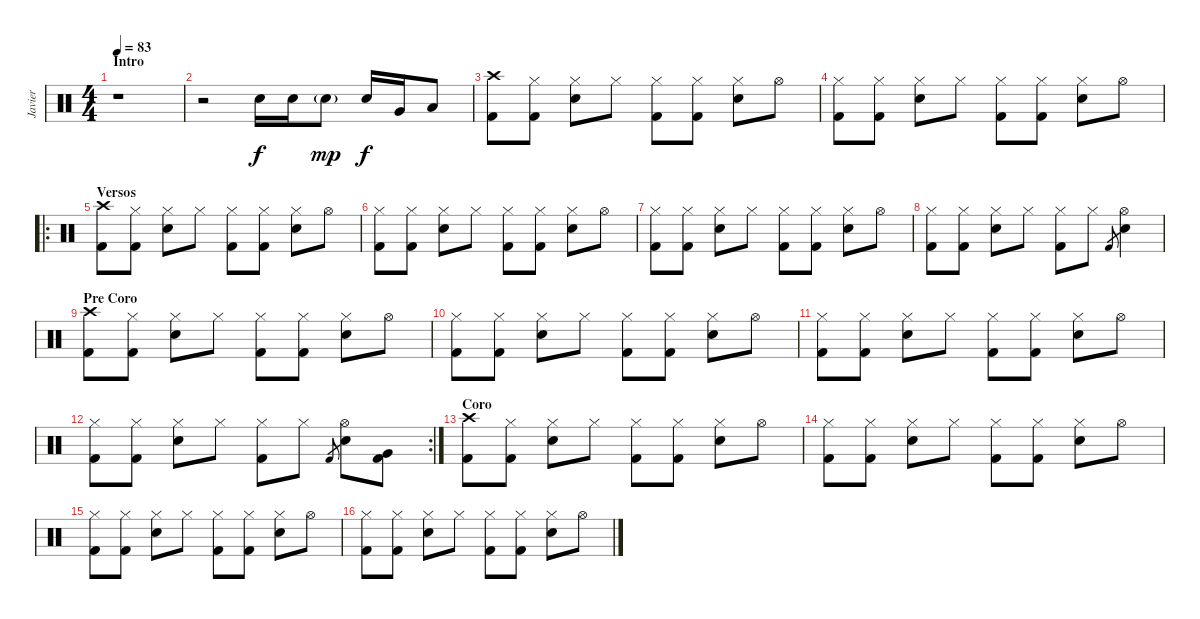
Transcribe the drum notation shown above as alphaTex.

\track ("Javier" "Javier") {instrument percussion}
\staff {score}
\articulation defaults
\ts (4 4)
\section ("" "Intro")
\tempo 83
\clef neutral
\ks c
r.1{dy f} |
r.2 "Snare (hit) 2".16 "Snare (hit) 2".16 "Snare (hit) 2"{g}.8{dy mp} "Snare (hit) 2".16{dy f} "Very Low Tom (hit)".16 "Low Tom (hit)".8 |
("Crash high (hit)" "Kick (hit) 2").8 ("Hi-Hat (closed)" "Kick (hit) 2").8 ("Hi-Hat (closed)" "Snare (hit) 2").8 "Hi-Hat (closed)".8 ("Hi-Hat (closed)" "Kick (hit) 2").8 ("Hi-Hat (closed)" "Kick (hit) 2").8 ("Hi-Hat (closed)" "Snare (hit) 2").8 "Hi-Hat (open)".8 |
("Hi-Hat (closed)" "Kick (hit) 2").8 ("Hi-Hat (closed)" "Kick (hit) 2").8 ("Hi-Hat (closed)" "Snare (hit) 2").8 "Hi-Hat (closed)".8 ("Hi-Hat (closed)" "Kick (hit) 2").8 ("Hi-Hat (closed)" "Kick (hit) 2").8 ("Hi-Hat (closed)" "Snare (hit) 2").8 "Hi-Hat (open)".8 |
\ro
\section ("" "Versos")
("Crash high (hit)" "Kick (hit) 2").8 ("Hi-Hat (closed)" "Kick (hit) 2").8 ("Hi-Hat (closed)" "Snare (hit) 2").8 "Hi-Hat (closed)".8 ("Hi-Hat (closed)" "Kick (hit) 2").8 ("Hi-Hat (closed)" "Kick (hit) 2").8 ("Hi-Hat (closed)" "Snare (hit) 2").8 "Hi-Hat (open)".8 |
("Hi-Hat (closed)" "Kick (hit) 2").8 ("Hi-Hat (closed)" "Kick (hit) 2").8 ("Hi-Hat (closed)" "Snare (hit) 2").8 "Hi-Hat (closed)".8 ("Hi-Hat (closed)" "Kick (hit) 2").8 ("Hi-Hat (closed)" "Kick (hit) 2").8 ("Hi-Hat (closed)" "Snare (hit) 2").8 "Hi-Hat (open)".8 |
("Hi-Hat (closed)" "Kick (hit) 2").8 ("Hi-Hat (closed)" "Kick (hit) 2").8 ("Hi-Hat (closed)" "Snare (hit) 2").8 "Hi-Hat (closed)".8 ("Hi-Hat (closed)" "Kick (hit) 2").8 ("Hi-Hat (closed)" "Kick (hit) 2").8 ("Hi-Hat (closed)" "Snare (hit) 2").8 "Hi-Hat (open)".8 |
("Hi-Hat (closed)" "Kick (hit) 2").8 ("Hi-Hat (closed)" "Kick (hit) 2").8 ("Hi-Hat (closed)" "Snare (hit) 2").8 "Hi-Hat (closed)".8 ("Hi-Hat (closed)" "Kick (hit) 2").8 "Hi-Hat (closed)".8 "Kick (hit) 2".8{gr} ("Hi-Hat (open)" "Snare (hit) 2").4 |
\section ("" "Pre Coro")
("Crash high (hit)" "Kick (hit) 2").8 ("Hi-Hat (closed)" "Kick (hit) 2").8 ("Hi-Hat (closed)" "Snare (hit) 2").8 "Hi-Hat (closed)".8 ("Hi-Hat (closed)" "Kick (hit) 2").8 ("Hi-Hat (closed)" "Kick (hit) 2").8 ("Hi-Hat (closed)" "Snare (hit) 2").8 "Hi-Hat (open)".8 |
("Hi-Hat (closed)" "Kick (hit) 2").8 ("Hi-Hat (closed)" "Kick (hit) 2").8 ("Hi-Hat (closed)" "Snare (hit) 2").8 "Hi-Hat (closed)".8 ("Hi-Hat (closed)" "Kick (hit) 2").8 ("Hi-Hat (closed)" "Kick (hit) 2").8 ("Hi-Hat (closed)" "Snare (hit) 2").8 "Hi-Hat (open)".8 |
("Hi-Hat (closed)" "Kick (hit) 2").8 ("Hi-Hat (closed)" "Kick (hit) 2").8 ("Hi-Hat (closed)" "Snare (hit) 2").8 "Hi-Hat (closed)".8 ("Hi-Hat (closed)" "Kick (hit) 2").8 ("Hi-Hat (closed)" "Kick (hit) 2").8 ("Hi-Hat (closed)" "Snare (hit) 2").8 "Hi-Hat (open)".8 |
\rc 2
("Hi-Hat (closed)" "Kick (hit) 2").8 ("Hi-Hat (closed)" "Kick (hit) 2").8 ("Hi-Hat (closed)" "Snare (hit) 2").8 "Hi-Hat (closed)".8 ("Hi-Hat (closed)" "Kick (hit) 2").8 "Hi-Hat (closed)".8 "Kick (hit) 2".8{gr} ("Hi-Hat (open)" "Snare (hit) 2").8 ("Very Low Tom (hit)" "Kick (hit) 2").8 |
\section ("" "Coro")
("Crash high (hit)" "Kick (hit) 2").8 ("Hi-Hat (closed)" "Kick (hit) 2").8 ("Hi-Hat (closed)" "Snare (hit) 2").8 "Hi-Hat (closed)".8 ("Hi-Hat (closed)" "Kick (hit) 2").8 ("Hi-Hat (closed)" "Kick (hit) 2").8 ("Hi-Hat (closed)" "Snare (hit) 2").8 "Hi-Hat (open)".8 |
("Hi-Hat (closed)" "Kick (hit) 2").8 ("Hi-Hat (closed)" "Kick (hit) 2").8 ("Hi-Hat (closed)" "Snare (hit) 2").8 "Hi-Hat (closed)".8 ("Hi-Hat (closed)" "Kick (hit) 2").8 ("Hi-Hat (closed)" "Kick (hit) 2").8 ("Hi-Hat (closed)" "Snare (hit) 2").8 "Hi-Hat (open)".8 |
("Hi-Hat (closed)" "Kick (hit) 2").8 ("Hi-Hat (closed)" "Kick (hit) 2").8 ("Hi-Hat (closed)" "Snare (hit) 2").8 "Hi-Hat (closed)".8 ("Hi-Hat (closed)" "Kick (hit) 2").8 ("Hi-Hat (closed)" "Kick (hit) 2").8 ("Hi-Hat (closed)" "Snare (hit) 2").8 "Hi-Hat (open)".8 |
("Hi-Hat (closed)" "Kick (hit) 2").8 ("Hi-Hat (closed)" "Kick (hit) 2").8 ("Hi-Hat (closed)" "Snare (hit) 2").8 "Hi-Hat (closed)".8 ("Hi-Hat (closed)" "Kick (hit) 2").8 ("Hi-Hat (closed)" "Kick (hit) 2").8 ("Hi-Hat (closed)" "Snare (hit) 2").8 "Hi-Hat (open)".8
